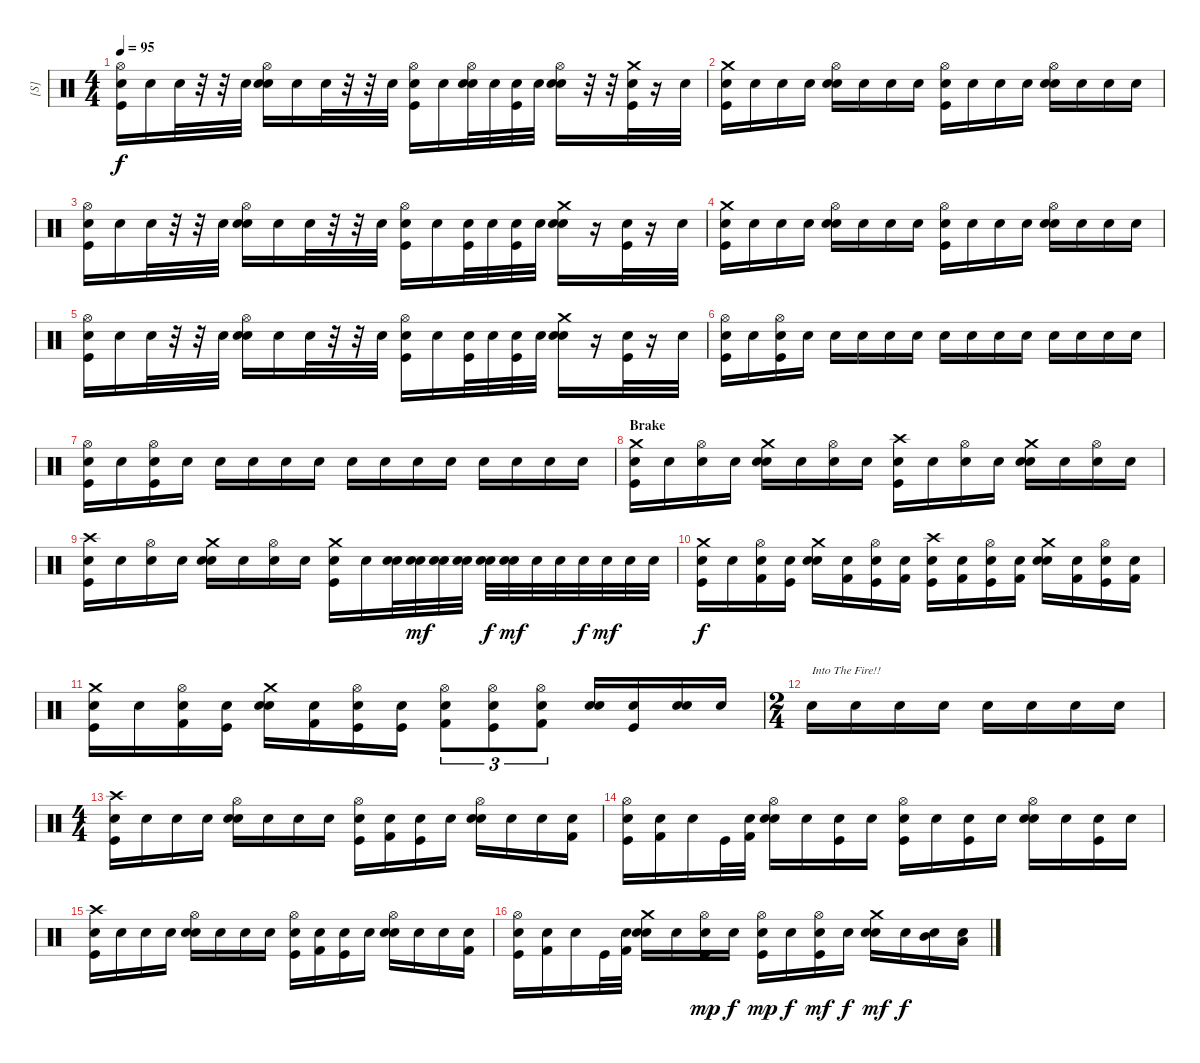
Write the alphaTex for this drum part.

\track ("[S]" "[S]") {instrument percussion}
\staff {score}
\articulation defaults
\ts (4 4)
\tempo 95
\clef neutral
\ks c
("Hi-Hat (open)" "Kick (hit)" "Snare (hit)"{x}).16{dy f} "Snare (hit)"{x}.16 "Snare (hit)"{x}.32 r.32 r.32 "Snare (hit)"{x}.32 ("Hi-Hat (open)" "Snare (hit) 2" "Snare (hit)"{x}).16 "Snare (hit)"{x}.16 "Snare (hit)"{x}.32 r.32 r.32 "Snare (hit)"{x}.32 ("Hi-Hat (open)" "Kick (hit)" "Snare (hit)"{x}).16 "Snare (hit)"{x}.16 ("Hi-Hat (open)" "Snare (hit) 2" "Snare (hit)"{x}).32 "Snare (hit)"{x}.32 ("Kick (hit)" "Snare (hit)"{x}).32 "Snare (hit)"{x}.32 ("Hi-Hat (open)" "Snare (hit) 2" "Snare (hit)"{x}).16 r.32 r.32 ("Crash medium (hit)" "Kick (hit)" "Snare (hit)"{x}).32 r.16 "Snare (hit)"{x}.32 |
("Crash medium (hit)" "Kick (hit)" "Snare (hit)"{x}).16 "Snare (hit)"{x}.16 "Snare (hit)"{x}.16 "Snare (hit)"{x}.16 ("Hi-Hat (open)" "Snare (hit) 2" "Snare (hit)"{x}).16 "Snare (hit)"{x}.16 "Snare (hit)"{x}.16 "Snare (hit)"{x}.16 ("Hi-Hat (open)" "Kick (hit)" "Snare (hit)"{x}).16 "Snare (hit)"{x}.16 "Snare (hit)"{x}.16 "Snare (hit)"{x}.16 ("Hi-Hat (open)" "Snare (hit) 2" "Snare (hit)"{x}).16 "Snare (hit)"{x}.16 "Snare (hit)"{x}.16 "Snare (hit)"{x}.16 |
("Hi-Hat (open)" "Kick (hit)" "Snare (hit)"{x}).16 "Snare (hit)"{x}.16 "Snare (hit)"{x}.32 r.32 r.32 "Snare (hit)"{x}.32 ("Hi-Hat (open)" "Snare (hit) 2" "Snare (hit)"{x}).16 "Snare (hit)"{x}.16 "Snare (hit)"{x}.32 r.32 r.32 "Snare (hit)"{x}.32 ("Hi-Hat (open)" "Kick (hit)" "Snare (hit)"{x}).16 "Snare (hit)"{x}.16 ("Kick (hit)" "Snare (hit)"{x}).32 "Snare (hit)"{x}.32 ("Kick (hit)" "Snare (hit)"{x}).32 "Snare (hit)"{x}.32 ("Crash medium (hit)" "Snare (hit) 2" "Snare (hit)"{x}).16 r.16 ("Kick (hit)" "Snare (hit)"{x}).32 r.16 "Snare (hit)"{x}.32 |
("Crash medium (hit)" "Kick (hit)" "Snare (hit)"{x}).16 "Snare (hit)"{x}.16 "Snare (hit)"{x}.16 "Snare (hit)"{x}.16 ("Hi-Hat (open)" "Snare (hit) 2" "Snare (hit)"{x}).16 "Snare (hit)"{x}.16 "Snare (hit)"{x}.16 "Snare (hit)"{x}.16 ("Hi-Hat (open)" "Kick (hit)" "Snare (hit)"{x}).16 "Snare (hit)"{x}.16 "Snare (hit)"{x}.16 "Snare (hit)"{x}.16 ("Hi-Hat (open)" "Snare (hit) 2" "Snare (hit)"{x}).16 "Snare (hit)"{x}.16 "Snare (hit)"{x}.16 "Snare (hit)"{x}.16 |
("Hi-Hat (open)" "Kick (hit)" "Snare (hit)"{x}).16 "Snare (hit)"{x}.16 "Snare (hit)"{x}.32 r.32 r.32 "Snare (hit)"{x}.32 ("Hi-Hat (open)" "Snare (hit) 2" "Snare (hit)"{x}).16 "Snare (hit)"{x}.16 "Snare (hit)"{x}.32 r.32 r.32 "Snare (hit)"{x}.32 ("Hi-Hat (open)" "Kick (hit)" "Snare (hit)"{x}).16 "Snare (hit)"{x}.16 ("Kick (hit)" "Snare (hit)"{x}).32 "Snare (hit)"{x}.32 ("Kick (hit)" "Snare (hit)"{x}).32 "Snare (hit)"{x}.32 ("Crash medium (hit)" "Snare (hit) 2" "Snare (hit)"{x}).16 r.16 ("Kick (hit)" "Snare (hit)"{x}).32 r.16 "Snare (hit)"{x}.32 |
("Hi-Hat (open)" "Kick (hit)" "Snare (hit)"{x}).16 "Snare (hit)"{x}.16 ("Hi-Hat (open)" "Kick (hit)" "Snare (hit)"{x}).16 "Snare (hit)"{x}.16 "Snare (hit)"{x}.16 "Snare (hit)"{x}.16 "Snare (hit)"{x}.16 "Snare (hit)"{x}.16 "Snare (hit)"{x}.16 "Snare (hit)"{x}.16 "Snare (hit)"{x}.16 "Snare (hit)"{x}.16 "Snare (hit)"{x}.16 "Snare (hit)"{x}.16 "Snare (hit)"{x}.16 "Snare (hit)"{x}.16 |
("Hi-Hat (open)" "Kick (hit)" "Snare (hit)"{x}).16 "Snare (hit)"{x}.16 ("Hi-Hat (open)" "Kick (hit)" "Snare (hit)"{x}).16 "Snare (hit)"{x}.16 "Snare (hit)"{x}.16 "Snare (hit)"{x}.16 "Snare (hit)"{x}.16 "Snare (hit)"{x}.16 "Snare (hit)"{x}.16 "Snare (hit)"{x}.16 "Snare (hit)"{x}.16 "Snare (hit)"{x}.16 "Snare (hit)"{x}.16 "Snare (hit)"{x}.16 "Snare (hit)"{x}.16 "Snare (hit)"{x}.16 |
\section ("" "Brake")
("Crash medium (hit)" "Kick (hit)" "Snare (hit)"{x}).16 "Snare (hit)"{x}.16 ("Hi-Hat (open)" "Snare (hit)"{x}).16 "Snare (hit)"{x}.16 ("Crash medium (hit)" "Snare (hit) 2" "Snare (hit)"{x}).16 "Snare (hit)"{x}.16 ("Hi-Hat (open)" "Snare (hit)"{x}).16 "Snare (hit)"{x}.16 ("Crash high (hit)" "Kick (hit)" "Snare (hit)"{x}).16 "Snare (hit)"{x}.16 ("Hi-Hat (open)" "Snare (hit)"{x}).16 "Snare (hit)"{x}.16 ("Crash medium (hit)" "Snare (hit) 2" "Snare (hit)"{x}).16 "Snare (hit)"{x}.16 ("Hi-Hat (open)" "Snare (hit)"{x}).16 "Snare (hit)"{x}.16 |
("Crash high (hit)" "Kick (hit)" "Snare (hit)"{x}).16 "Snare (hit)"{x}.16 ("Hi-Hat (open)" "Snare (hit)"{x}).16 "Snare (hit)"{x}.16 ("Crash medium (hit)" "Snare (hit) 2" "Snare (hit)"{x}).16 "Snare (hit)"{x}.16 ("Hi-Hat (open)" "Snare (hit)"{x}).16 "Snare (hit)"{x}.16 ("Crash medium (hit)" "Kick (hit)" "Snare (hit)"{x}).16 "Snare (hit)"{x}.16 ("Snare (hit) 2" "Snare (hit)"{x}).32 ("Snare (hit) 2" "Snare (hit)"{x}).32{dy mf} ("Snare (hit) 2" "Snare (hit)"{x}).32 ("Snare (hit) 2" "Snare (hit)"{x}).32 ("Snare (hit) 2" "Snare (hit)"{x}).32{dy f} ("Snare (hit) 2" "Snare (hit)"{x}).32{dy mf} "Snare (hit) 2".32 "Snare (hit) 2".32 "Snare (hit) 2".32{dy f} "Snare (hit) 2".32{dy mf} "Snare (hit) 2".32 "Snare (hit) 2".32 |
("Crash medium (hit)" "Kick (hit)" "Snare (hit)"{x}).16{dy f} "Snare (hit)"{x}.16 ("Hi-Hat (open)" "Kick (hit) 2" "Snare (hit)"{x}).16 ("Kick (hit)" "Snare (hit)"{x}).16 ("Crash medium (hit)" "Snare (hit) 2" "Snare (hit)"{x}).16 ("Kick (hit) 2" "Snare (hit)"{x}).16 ("Hi-Hat (open)" "Kick (hit)" "Snare (hit)"{x}).16 ("Kick (hit) 2" "Snare (hit)"{x}).16 ("Crash high (hit)" "Kick (hit)" "Snare (hit)"{x}).16 ("Kick (hit) 2" "Snare (hit)"{x}).16 ("Hi-Hat (open)" "Kick (hit)" "Snare (hit)"{x}).16 ("Kick (hit) 2" "Snare (hit)"{x}).16 ("Crash medium (hit)" "Snare (hit) 2" "Snare (hit)"{x}).16 ("Kick (hit) 2" "Snare (hit)"{x}).16 ("Hi-Hat (open)" "Kick (hit)" "Snare (hit)"{x}).16 ("Kick (hit) 2" "Snare (hit)"{x}).16 |
("Crash medium (hit)" "Kick (hit)" "Snare (hit)"{x}).16 "Snare (hit)"{x}.16 ("Hi-Hat (open)" "Kick (hit) 2" "Snare (hit)"{x}).16 ("Kick (hit)" "Snare (hit)"{x}).16 ("Crash medium (hit)" "Snare (hit) 2" "Snare (hit)"{x}).16 ("Kick (hit) 2" "Snare (hit)"{x}).16 ("Hi-Hat (open)" "Kick (hit)" "Snare (hit)"{x}).16 ("Kick (hit)" "Snare (hit)"{x}).16 ("Hi-Hat (open)" "Kick (hit) 2" "Snare (hit)"{x}).8{tu (3 2)} ("Hi-Hat (open)" "Kick (hit)" "Snare (hit)"{x}).8{tu (3 2)} ("Hi-Hat (open)" "Kick (hit) 2" "Snare (hit)"{x}).8{tu (3 2)} ("Snare (hit) 2" "Snare (hit)"{x}).16 ("Kick (hit)" "Snare (hit)"{x}).16 ("Snare (hit) 2" "Snare (hit)"{x}).16 "Snare (hit)"{x}.16 |
\ts (2 4)
"Snare (hit)"{x}.16{txt "Into The Fire!!"} "Snare (hit)"{x}.16 "Snare (hit)"{x}.16 "Snare (hit)"{x}.16 "Snare (hit)"{x}.16 "Snare (hit)"{x}.16 "Snare (hit)"{x}.16 "Snare (hit)"{x}.16 |
\ts (4 4)
("Crash high (hit)" "Kick (hit)" "Snare (hit)"{x}).16 "Snare (hit)"{x}.16 "Snare (hit)"{x}.16 "Snare (hit)"{x}.16 ("Hi-Hat (open)" "Snare (hit) 2" "Snare (hit)"{x}).16 "Snare (hit)"{x}.16 "Snare (hit)"{x}.16 "Snare (hit)"{x}.16 ("Hi-Hat (open)" "Kick (hit)" "Snare (hit)"{x}).16 ("Kick (hit) 2" "Snare (hit)"{x}).16 ("Kick (hit)" "Snare (hit)"{x}).16 "Snare (hit)"{x}.16 ("Hi-Hat (open)" "Snare (hit) 2" "Snare (hit)"{x}).16 "Snare (hit)"{x}.16 "Snare (hit)"{x}.16 ("Kick (hit) 2" "Snare (hit)"{x}).16 |
("Hi-Hat (open)" "Kick (hit)" "Snare (hit)"{x}).16 ("Kick (hit) 2" "Snare (hit)"{x}).16 "Snare (hit)"{x}.16 "Kick (hit)".32 ("Kick (hit) 2" "Snare (hit)"{x}).32 ("Hi-Hat (open)" "Snare (hit) 2" "Snare (hit)"{x}).16 "Snare (hit)"{x}.16 ("Kick (hit)" "Snare (hit)"{x}).16 "Snare (hit)"{x}.16 ("Hi-Hat (open)" "Kick (hit)" "Snare (hit)"{x}).16 "Snare (hit)"{x}.16 ("Kick (hit)" "Snare (hit)"{x}).16 "Snare (hit)"{x}.16 ("Hi-Hat (open)" "Snare (hit) 2" "Snare (hit)"{x}).16 "Snare (hit)"{x}.16 ("Kick (hit)" "Snare (hit)"{x}).16 "Snare (hit)"{x}.16 |
("Crash high (hit)" "Kick (hit)" "Snare (hit)"{x}).16 "Snare (hit)"{x}.16 "Snare (hit)"{x}.16 "Snare (hit)"{x}.16 ("Hi-Hat (open)" "Snare (hit) 2" "Snare (hit)"{x}).16 "Snare (hit)"{x}.16 "Snare (hit)"{x}.16 "Snare (hit)"{x}.16 ("Hi-Hat (open)" "Kick (hit)" "Snare (hit)"{x}).16 ("Kick (hit) 2" "Snare (hit)"{x}).16 ("Kick (hit)" "Snare (hit)"{x}).16 "Snare (hit)"{x}.16 ("Hi-Hat (open)" "Snare (hit) 2" "Snare (hit)"{x}).16 "Snare (hit)"{x}.16 "Snare (hit)"{x}.16 ("Kick (hit) 2" "Snare (hit)"{x}).16 |
("Hi-Hat (open)" "Kick (hit)" "Snare (hit)"{x}).16 ("Kick (hit) 2" "Snare (hit)"{x}).16 "Snare (hit)"{x}.16 "Kick (hit)".32 ("Kick (hit) 2" "Snare (hit)"{x}).32 ("Crash medium (hit)" "Snare (hit) 2" "Snare (hit)"{x}).16 "Snare (hit)"{x}.16 ("Hi-Hat (open)" "Kick (hit)" "Snare (hit)"{x}).16{dy mp} "Snare (hit)"{x}.16{dy f} ("Hi-Hat (open)" "Kick (hit)" "Snare (hit)"{x}).16{dy mp} "Snare (hit)"{x}.16{dy f} ("Hi-Hat (open)" "Kick (hit)" "Snare (hit)"{x}).16{dy mf} "Snare (hit)"{x}.16{dy f} ("Crash medium (hit)" "Snare (hit) 2" "Snare (hit)"{x}).16{dy mf} "Snare (hit)"{x}.16{dy f} ("Mid Tom (hit)" "Snare (hit)"{x}).16 ("Low Tom (hit)" "Snare (hit)"{x}).16
